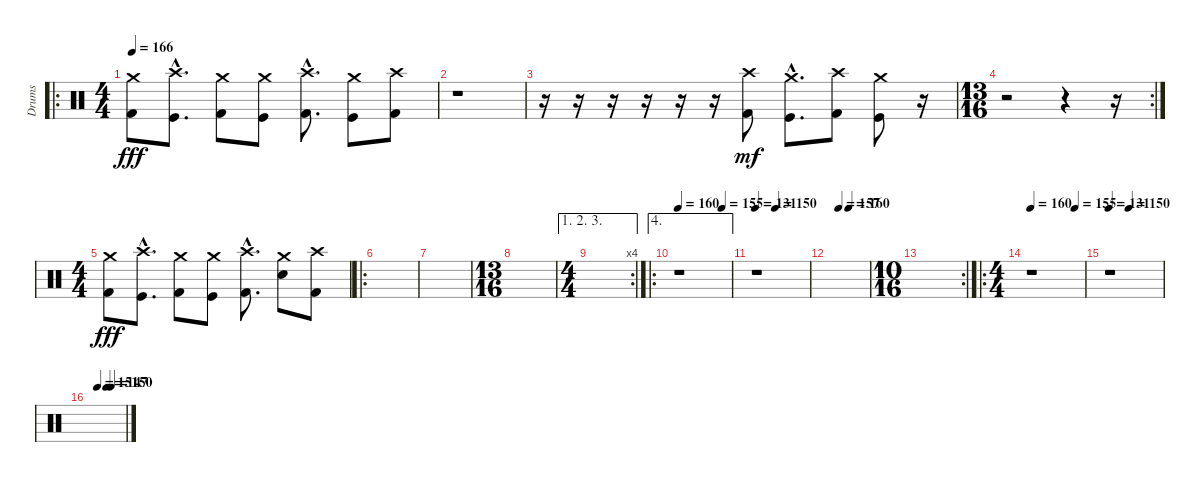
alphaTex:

\track ("Drums" "Drums") {instrument percussion}
\staff {score}
\articulation defaults
\ro
\ts (4 4)
\tempo 166
\clef neutral
\ks c
("Crash medium (hit)" "Kick (hit) 2").8{dy fff} ("Crash high (hit)"{hac} "Kick (hit)"{hac}).8{d} ("Crash medium (hit)" "Kick (hit) 2").8 ("Crash medium (hit)" "Kick (hit)").8 ("Crash high (hit)"{hac} "Kick (hit) 2"{hac}).8{d} ("Crash medium (hit)" "Kick (hit)").8 ("Crash high (hit)" "Kick (hit) 2").8 |
r.1 |
r.16 r.16 r.16 r.16 r.16 r.16 ("Crash high (hit)" "Kick (hit) 2").8{dy mf} ("Crash medium (hit)"{hac} "Kick (hit)"{hac}).8{d} ("Crash high (hit)" "Kick (hit) 2").8 ("Crash medium (hit)" "Kick (hit)").8 r.16 |
\rc 2
\ts (13 16)
r.2 r.4 r.16 |
\ts (4 4)
("Crash medium (hit)" "Kick (hit) 2").8{dy fff} ("Crash high (hit)"{hac} "Kick (hit)"{hac}).8{d} ("Crash medium (hit)" "Kick (hit) 2").8 ("Crash medium (hit)" "Kick (hit)").8 ("Crash high (hit)"{hac} "Kick (hit) 2"{hac}).8{d} ("Crash medium (hit)" "Snare (hit) 2").8 ("Crash high (hit)" "Kick (hit) 2").8 |
\ro
|
|
\ts (13 16)
|
\ae (1 2 3)
\rc 4
\ts (4 4)
|
\ae 4
\ro
\tempo 160
\tempo (155 0.8333333333333334)
r.1 |
\tempo 131
\tempo (150 0.375)
r.1 |
\tempo (157 0.25)
\tempo (160 0.5)
|
\rc 2
\ts (10 16)
|
\ro
\ts (4 4)
\tempo 160
\tempo (155 0.8333333333333334)
r.1 |
\tempo 131
\tempo (150 0.375)
r.1 |
\tempo (151 0.25)
\tempo (147 0.5)
\tempo (150 0.625)
